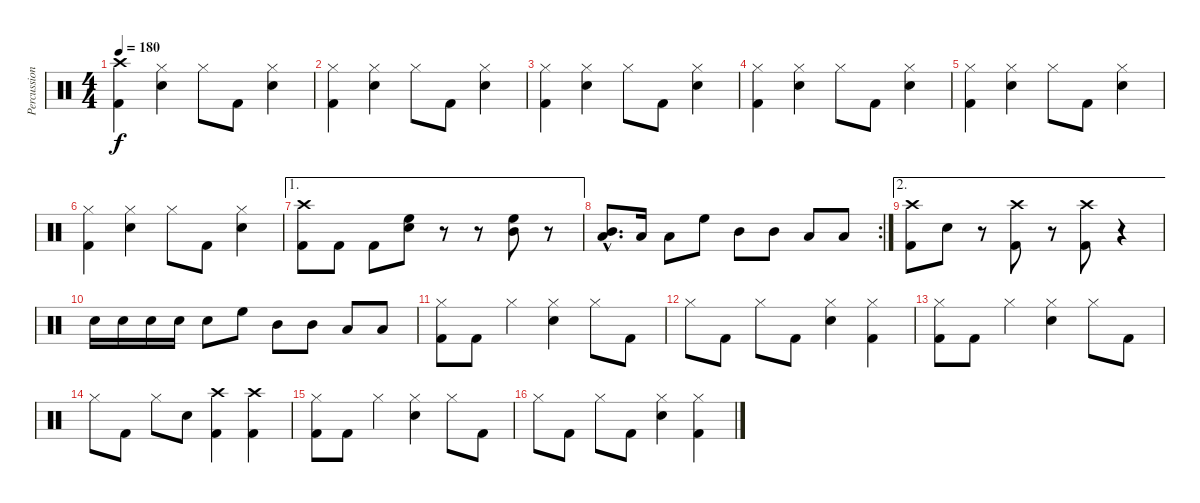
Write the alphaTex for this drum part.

\track ("Percussion" "Percussion") {instrument percussion}
\staff {score}
\articulation defaults
\ts (4 4)
\tempo 180
\clef neutral
\ks c
("Crash high (hit)" "Kick (hit) 2").4{dy f} ("Hi-Hat (closed)" "Snare (hit) 2").4 "Hi-Hat (closed)".8 "Kick (hit) 2".8 ("Hi-Hat (closed)" "Snare (hit) 2").4 |
("Hi-Hat (closed)" "Kick (hit) 2").4 ("Hi-Hat (closed)" "Snare (hit) 2").4 "Hi-Hat (closed)".8 "Kick (hit) 2".8 ("Hi-Hat (closed)" "Snare (hit) 2").4 |
("Hi-Hat (closed)" "Kick (hit) 2").4 ("Hi-Hat (closed)" "Snare (hit) 2").4 "Hi-Hat (closed)".8 "Kick (hit) 2".8 ("Hi-Hat (closed)" "Snare (hit) 2").4 |
("Hi-Hat (closed)" "Kick (hit) 2").4 ("Hi-Hat (closed)" "Snare (hit) 2").4 "Hi-Hat (closed)".8 "Kick (hit) 2".8 ("Hi-Hat (closed)" "Snare (hit) 2").4 |
("Hi-Hat (closed)" "Kick (hit) 2").4 ("Hi-Hat (closed)" "Snare (hit) 2").4 "Hi-Hat (closed)".8 "Kick (hit) 2".8 ("Hi-Hat (closed)" "Snare (hit) 2").4 |
("Hi-Hat (closed)" "Kick (hit) 2").4 ("Hi-Hat (closed)" "Snare (hit) 2").4 "Hi-Hat (closed)".8 "Kick (hit) 2".8 ("Hi-Hat (closed)" "Snare (hit) 2").4 |
\ae 1
("Crash high (hit)" "Kick (hit) 2").8 "Kick (hit) 2".8 "Kick (hit) 2".8 ("High Floor Tom (hit)" "Snare (hit) 2").8 r.8 r.8 ("High Floor Tom (hit)" "Mid Tom (hit)").8 r.8 |
\rc 2
("Mid Tom (hit)"{hac} "Low Tom (hit)"{hac}).8{d} "Low Tom (hit)".16 "Low Tom (hit)".8 "High Floor Tom (hit)".8 "Mid Tom (hit)".8 "Mid Tom (hit)".8 "Low Tom (hit)".8 "Low Tom (hit)".8 |
\ae 2
("Crash high (hit)" "Kick (hit) 2").8 "Snare (hit) 2".8 r.8 ("Crash high (hit)" "Kick (hit) 2").8 r.8 ("Crash high (hit)" "Kick (hit) 2").8 r.4 |
"Snare (hit) 2".16 "Snare (hit) 2".16 "Snare (hit) 2".16 "Snare (hit) 2".16 "Snare (hit) 2".8 "High Floor Tom (hit)".8 "Mid Tom (hit)".8 "Mid Tom (hit)".8 "Low Tom (hit)".8 "Low Tom (hit)".8 |
("Hi-Hat (closed)" "Kick (hit) 2").8 "Kick (hit) 2".8 "Hi-Hat (closed)".4 ("Hi-Hat (closed)" "Snare (hit) 2").4 "Hi-Hat (closed)".8 "Kick (hit) 2".8 |
"Hi-Hat (closed)".8 "Kick (hit) 2".8 "Hi-Hat (closed)".8 "Kick (hit) 2".8 ("Hi-Hat (closed)" "Snare (hit) 2").4 ("Hi-Hat (closed)" "Kick (hit) 2").4 |
("Hi-Hat (closed)" "Kick (hit) 2").8 "Kick (hit) 2".8 "Hi-Hat (closed)".4 ("Hi-Hat (closed)" "Snare (hit) 2").4 "Hi-Hat (closed)".8 "Kick (hit) 2".8 |
"Hi-Hat (closed)".8 "Kick (hit) 2".8 "Hi-Hat (closed)".8 "Snare (hit) 2".8 ("Crash high (hit)" "Kick (hit) 2").4 ("Crash high (hit)" "Kick (hit) 2").4 |
("Hi-Hat (closed)" "Kick (hit) 2").8 "Kick (hit) 2".8 "Hi-Hat (closed)".4 ("Hi-Hat (closed)" "Snare (hit) 2").4 "Hi-Hat (closed)".8 "Kick (hit) 2".8 |
"Hi-Hat (closed)".8 "Kick (hit) 2".8 "Hi-Hat (closed)".8 "Kick (hit) 2".8 ("Hi-Hat (closed)" "Snare (hit) 2").4 ("Hi-Hat (closed)" "Kick (hit) 2").4
